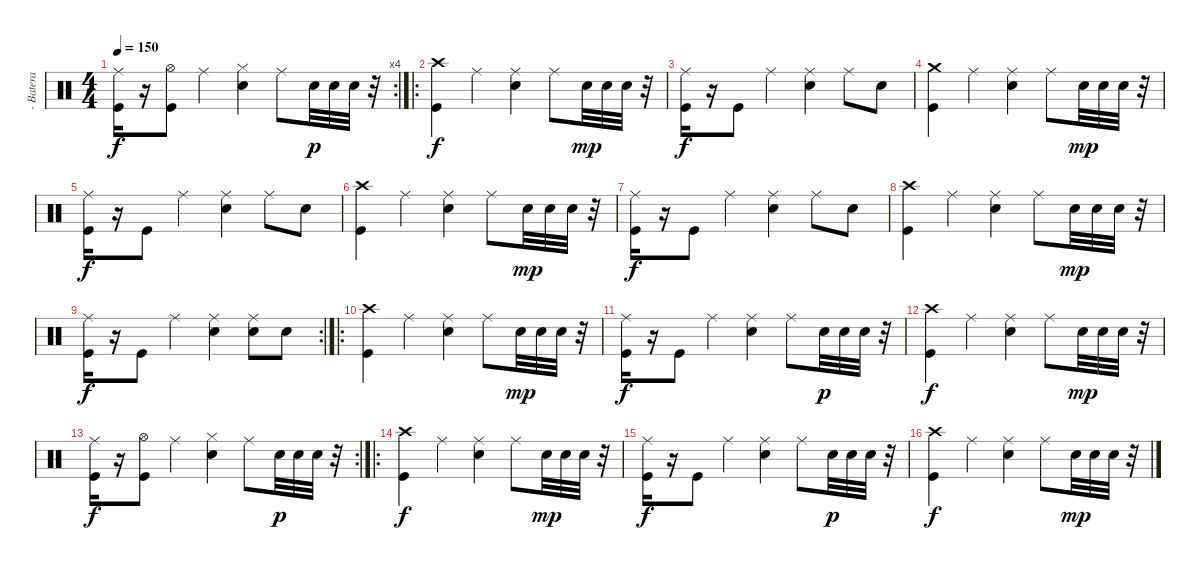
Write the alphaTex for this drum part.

\track ("- Batera" "- Batera") {instrument percussion}
\staff {score}
\articulation defaults
\rc 4
\ts (4 4)
\tempo 150
\clef neutral
\ks c
("Ride (middle)" "Kick (hit)").16{dy f} r.16 ("Hi-Hat (open)" "Kick (hit)").8 "Ride (middle)".4 ("Hi-Hat (closed)" "Snare (hit) 2").4 "Ride (middle)".8 "Snare (hit) 2".32{dy p} "Snare (hit) 2".32 "Snare (hit) 2".32 r.32 |
\ro
("Crash high (hit)" "Kick (hit)").4{dy f} "Ride (middle)".4 ("Ride (middle)" "Snare (hit) 2").4 "Ride (middle)".8 "Snare (hit) 2".32{dy mp} "Snare (hit) 2".32 "Snare (hit) 2".32 r.32 |
("Ride (middle)" "Kick (hit)").16{dy f} r.16 "Kick (hit)".8 "Ride (middle)".4 ("Ride (middle)" "Snare (hit) 2").4 "Ride (middle)".8 "Snare (hit) 2".8 |
("Crash medium (hit)" "Kick (hit)").4 "Ride (middle)".4 ("Ride (middle)" "Snare (hit) 2").4 "Ride (middle)".8 "Snare (hit) 2".32{dy mp} "Snare (hit) 2".32 "Snare (hit) 2".32 r.32 |
("Ride (middle)" "Kick (hit)").16{dy f} r.16 "Kick (hit)".8 "Ride (middle)".4 ("Ride (middle)" "Snare (hit) 2").4 "Ride (middle)".8 "Snare (hit) 2".8 |
("Crash high (hit)" "Kick (hit)").4 "Ride (middle)".4 ("Ride (middle)" "Snare (hit) 2").4 "Ride (middle)".8 "Snare (hit) 2".32{dy mp} "Snare (hit) 2".32 "Snare (hit) 2".32 r.32 |
("Ride (middle)" "Kick (hit)").16{dy f} r.16 "Kick (hit)".8 "Ride (middle)".4 ("Ride (middle)" "Snare (hit) 2").4 "Ride (middle)".8 "Snare (hit) 2".8 |
("Crash high (hit)" "Kick (hit)").4 "Ride (middle)".4 ("Ride (middle)" "Snare (hit) 2").4 "Ride (middle)".8 "Snare (hit) 2".32{dy mp} "Snare (hit) 2".32 "Snare (hit) 2".32 r.32 |
\rc 2
("Ride (middle)" "Kick (hit)").16{dy f} r.16 "Kick (hit)".8 "Ride (middle)".4 ("Ride (middle)" "Snare (hit) 2").4 ("Ride (middle)" "Snare (hit) 2").8 "Snare (hit) 2".8 |
\ro
("Crash high (hit)" "Kick (hit)").4 "Ride (middle)".4 ("Ride (middle)" "Snare (hit) 2").4 "Ride (middle)".8 "Snare (hit) 2".32{dy mp} "Snare (hit) 2".32 "Snare (hit) 2".32 r.32 |
("Ride (middle)" "Kick (hit)").16{dy f} r.16 "Kick (hit)".8 "Ride (middle)".4 ("Ride (middle)" "Snare (hit) 2").4 "Ride (middle)".8 "Snare (hit) 2".32{dy p} "Snare (hit) 2".32 "Snare (hit) 2".32 r.32 |
("Crash high (hit)" "Kick (hit)").4{dy f} "Ride (middle)".4 ("Ride (middle)" "Snare (hit) 2").4 "Ride (middle)".8 "Snare (hit) 2".32{dy mp} "Snare (hit) 2".32 "Snare (hit) 2".32 r.32 |
\rc 2
("Ride (middle)" "Kick (hit)").16{dy f} r.16 ("Hi-Hat (open)" "Kick (hit)").8 "Ride (middle)".4 ("Hi-Hat (closed)" "Snare (hit) 2").4 "Ride (middle)".8 "Snare (hit) 2".32{dy p} "Snare (hit) 2".32 "Snare (hit) 2".32 r.32 |
\ro
("Crash high (hit)" "Kick (hit)").4{dy f} "Ride (middle)".4 ("Ride (middle)" "Snare (hit) 2").4 "Ride (middle)".8 "Snare (hit) 2".32{dy mp} "Snare (hit) 2".32 "Snare (hit) 2".32 r.32 |
("Ride (middle)" "Kick (hit)").16{dy f} r.16 "Kick (hit)".8 "Ride (middle)".4 ("Ride (middle)" "Snare (hit) 2").4 "Ride (middle)".8 "Snare (hit) 2".32{dy p} "Snare (hit) 2".32 "Snare (hit) 2".32 r.32 |
("Crash high (hit)" "Kick (hit)").4{dy f} "Ride (middle)".4 ("Ride (middle)" "Snare (hit) 2").4 "Ride (middle)".8 "Snare (hit) 2".32{dy mp} "Snare (hit) 2".32 "Snare (hit) 2".32 r.32
